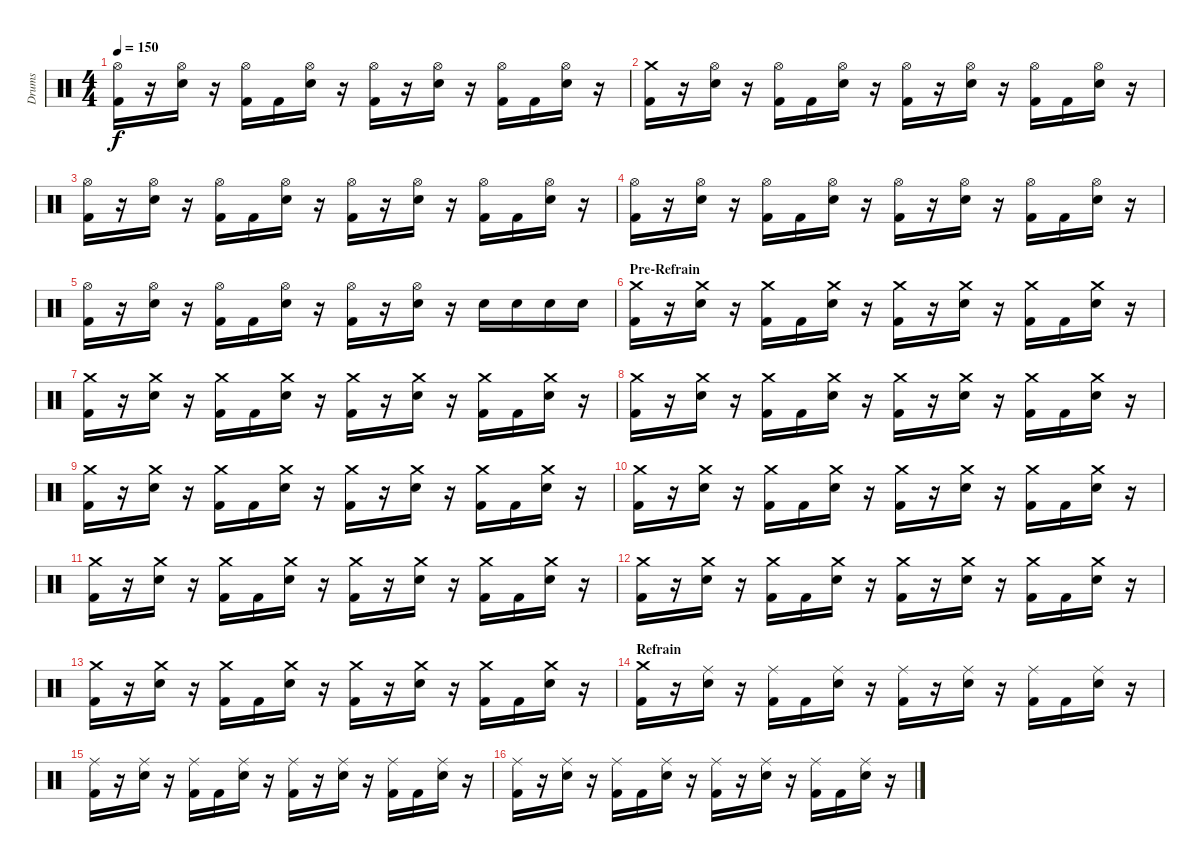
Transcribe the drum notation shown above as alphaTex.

\track ("Drums" "Drums") {instrument percussion}
\staff {score}
\articulation defaults
\ts (4 4)
\tempo 150
\clef neutral
\ks c
("Hi-Hat (open)" "Kick (hit) 2").16{dy f} r.16 ("Hi-Hat (open)" "Electric Snare (hit)").16 r.16 ("Hi-Hat (open)" "Kick (hit) 2").16 "Kick (hit) 2".16 ("Hi-Hat (open)" "Electric Snare (hit)").16 r.16 ("Hi-Hat (open)" "Kick (hit) 2").16 r.16 ("Hi-Hat (open)" "Electric Snare (hit)").16 r.16 ("Hi-Hat (open)" "Kick (hit) 2").16 "Kick (hit) 2".16 ("Hi-Hat (open)" "Electric Snare (hit)").16 r.16 |
("Crash medium (hit)" "Kick (hit) 2").16 r.16 ("Hi-Hat (open)" "Electric Snare (hit)").16 r.16 ("Hi-Hat (open)" "Kick (hit) 2").16 "Kick (hit) 2".16 ("Hi-Hat (open)" "Electric Snare (hit)").16 r.16 ("Hi-Hat (open)" "Kick (hit) 2").16 r.16 ("Hi-Hat (open)" "Electric Snare (hit)").16 r.16 ("Hi-Hat (open)" "Kick (hit) 2").16 "Kick (hit) 2".16 ("Hi-Hat (open)" "Electric Snare (hit)").16 r.16 |
("Hi-Hat (open)" "Kick (hit) 2").16 r.16 ("Hi-Hat (open)" "Electric Snare (hit)").16 r.16 ("Hi-Hat (open)" "Kick (hit) 2").16 "Kick (hit) 2".16 ("Hi-Hat (open)" "Electric Snare (hit)").16 r.16 ("Hi-Hat (open)" "Kick (hit) 2").16 r.16 ("Hi-Hat (open)" "Electric Snare (hit)").16 r.16 ("Hi-Hat (open)" "Kick (hit) 2").16 "Kick (hit) 2".16 ("Hi-Hat (open)" "Electric Snare (hit)").16 r.16 |
("Hi-Hat (open)" "Kick (hit) 2").16 r.16 ("Hi-Hat (open)" "Electric Snare (hit)").16 r.16 ("Hi-Hat (open)" "Kick (hit) 2").16 "Kick (hit) 2".16 ("Hi-Hat (open)" "Electric Snare (hit)").16 r.16 ("Hi-Hat (open)" "Kick (hit) 2").16 r.16 ("Hi-Hat (open)" "Electric Snare (hit)").16 r.16 ("Hi-Hat (open)" "Kick (hit) 2").16 "Kick (hit) 2".16 ("Hi-Hat (open)" "Electric Snare (hit)").16 r.16 |
("Hi-Hat (open)" "Kick (hit) 2").16 r.16 ("Hi-Hat (open)" "Electric Snare (hit)").16 r.16 ("Hi-Hat (open)" "Kick (hit) 2").16 "Kick (hit) 2".16 ("Hi-Hat (open)" "Electric Snare (hit)").16 r.16 ("Hi-Hat (open)" "Kick (hit) 2").16 r.16 ("Hi-Hat (open)" "Electric Snare (hit)").16 r.16 "Electric Snare (hit)".16 "Electric Snare (hit)".16 "Electric Snare (hit)".16 "Electric Snare (hit)".16 |
\section ("" "Pre-Refrain")
("Crash medium (hit)" "Kick (hit) 2").16 r.16 ("Crash medium (hit)" "Electric Snare (hit)").16 r.16 ("Crash medium (hit)" "Kick (hit) 2").16 "Kick (hit) 2".16 ("Crash medium (hit)" "Electric Snare (hit)").16 r.16 ("Crash medium (hit)" "Kick (hit) 2").16 r.16 ("Crash medium (hit)" "Electric Snare (hit)").16 r.16 ("Crash medium (hit)" "Kick (hit) 2").16 "Kick (hit) 2".16 ("Crash medium (hit)" "Electric Snare (hit)").16 r.16 |
("Crash medium (hit)" "Kick (hit) 2").16 r.16 ("Crash medium (hit)" "Electric Snare (hit)").16 r.16 ("Crash medium (hit)" "Kick (hit) 2").16 "Kick (hit) 2".16 ("Crash medium (hit)" "Electric Snare (hit)").16 r.16 ("Crash medium (hit)" "Kick (hit) 2").16 r.16 ("Crash medium (hit)" "Electric Snare (hit)").16 r.16 ("Crash medium (hit)" "Kick (hit) 2").16 "Kick (hit) 2".16 ("Crash medium (hit)" "Electric Snare (hit)").16 r.16 |
("Crash medium (hit)" "Kick (hit) 2").16 r.16 ("Crash medium (hit)" "Electric Snare (hit)").16 r.16 ("Crash medium (hit)" "Kick (hit) 2").16 "Kick (hit) 2".16 ("Crash medium (hit)" "Electric Snare (hit)").16 r.16 ("Crash medium (hit)" "Kick (hit) 2").16 r.16 ("Crash medium (hit)" "Electric Snare (hit)").16 r.16 ("Crash medium (hit)" "Kick (hit) 2").16 "Kick (hit) 2".16 ("Crash medium (hit)" "Electric Snare (hit)").16 r.16 |
("Crash medium (hit)" "Kick (hit) 2").16 r.16 ("Crash medium (hit)" "Electric Snare (hit)").16 r.16 ("Crash medium (hit)" "Kick (hit) 2").16 "Kick (hit) 2".16 ("Crash medium (hit)" "Electric Snare (hit)").16 r.16 ("Crash medium (hit)" "Kick (hit) 2").16 r.16 ("Crash medium (hit)" "Electric Snare (hit)").16 r.16 ("Crash medium (hit)" "Kick (hit) 2").16 "Kick (hit) 2".16 ("Crash medium (hit)" "Electric Snare (hit)").16 r.16 |
("Crash medium (hit)" "Kick (hit) 2").16 r.16 ("Crash medium (hit)" "Electric Snare (hit)").16 r.16 ("Crash medium (hit)" "Kick (hit) 2").16 "Kick (hit) 2".16 ("Crash medium (hit)" "Electric Snare (hit)").16 r.16 ("Crash medium (hit)" "Kick (hit) 2").16 r.16 ("Crash medium (hit)" "Electric Snare (hit)").16 r.16 ("Crash medium (hit)" "Kick (hit) 2").16 "Kick (hit) 2".16 ("Crash medium (hit)" "Electric Snare (hit)").16 r.16 |
("Crash medium (hit)" "Kick (hit) 2").16 r.16 ("Crash medium (hit)" "Electric Snare (hit)").16 r.16 ("Crash medium (hit)" "Kick (hit) 2").16 "Kick (hit) 2".16 ("Crash medium (hit)" "Electric Snare (hit)").16 r.16 ("Crash medium (hit)" "Kick (hit) 2").16 r.16 ("Crash medium (hit)" "Electric Snare (hit)").16 r.16 ("Crash medium (hit)" "Kick (hit) 2").16 "Kick (hit) 2".16 ("Crash medium (hit)" "Electric Snare (hit)").16 r.16 |
("Crash medium (hit)" "Kick (hit) 2").16 r.16 ("Crash medium (hit)" "Electric Snare (hit)").16 r.16 ("Crash medium (hit)" "Kick (hit) 2").16 "Kick (hit) 2".16 ("Crash medium (hit)" "Electric Snare (hit)").16 r.16 ("Crash medium (hit)" "Kick (hit) 2").16 r.16 ("Crash medium (hit)" "Electric Snare (hit)").16 r.16 ("Crash medium (hit)" "Kick (hit) 2").16 "Kick (hit) 2".16 ("Crash medium (hit)" "Electric Snare (hit)").16 r.16 |
("Crash medium (hit)" "Kick (hit) 2").16 r.16 ("Crash medium (hit)" "Electric Snare (hit)").16 r.16 ("Crash medium (hit)" "Kick (hit) 2").16 "Kick (hit) 2".16 ("Crash medium (hit)" "Electric Snare (hit)").16 r.16 ("Crash medium (hit)" "Kick (hit) 2").16 r.16 ("Crash medium (hit)" "Electric Snare (hit)").16 r.16 ("Crash medium (hit)" "Kick (hit) 2").16 "Kick (hit) 2".16 ("Crash medium (hit)" "Electric Snare (hit)").16 r.16 |
\section ("" "Refrain")
("Crash medium (hit)" "Kick (hit) 2").16 r.16 ("Ride (middle)" "Electric Snare (hit)").16 r.16 ("Ride (middle)" "Kick (hit) 2").16 "Kick (hit) 2".16 ("Ride (middle)" "Electric Snare (hit)").16 r.16 ("Ride (middle)" "Kick (hit) 2").16 r.16 ("Ride (middle)" "Electric Snare (hit)").16 r.16 ("Ride (middle)" "Kick (hit) 2").16 "Kick (hit) 2".16 ("Ride (middle)" "Electric Snare (hit)").16 r.16 |
("Ride (middle)" "Kick (hit) 2").16 r.16 ("Ride (middle)" "Electric Snare (hit)").16 r.16 ("Ride (middle)" "Kick (hit) 2").16 "Kick (hit) 2".16 ("Ride (middle)" "Electric Snare (hit)").16 r.16 ("Ride (middle)" "Kick (hit) 2").16 r.16 ("Ride (middle)" "Electric Snare (hit)").16 r.16 ("Ride (middle)" "Kick (hit) 2").16 "Kick (hit) 2".16 ("Ride (middle)" "Electric Snare (hit)").16 r.16 |
("Ride (middle)" "Kick (hit) 2").16 r.16 ("Ride (middle)" "Electric Snare (hit)").16 r.16 ("Ride (middle)" "Kick (hit) 2").16 "Kick (hit) 2".16 ("Ride (middle)" "Electric Snare (hit)").16 r.16 ("Ride (middle)" "Kick (hit) 2").16 r.16 ("Ride (middle)" "Electric Snare (hit)").16 r.16 ("Ride (middle)" "Kick (hit) 2").16 "Kick (hit) 2".16 ("Ride (middle)" "Electric Snare (hit)").16 r.16
